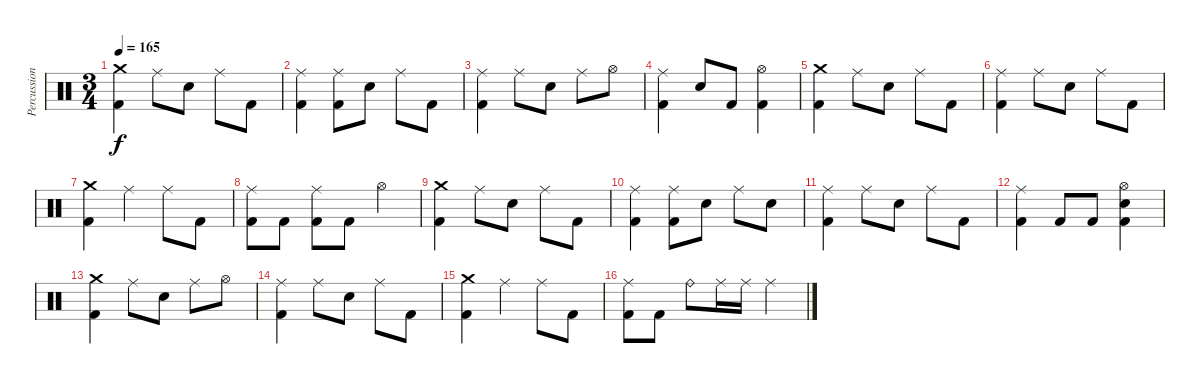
\track ("Percussion" "Percussion") {instrument percussion}
\staff {score}
\articulation defaults
\ts (3 4)
\tempo 165
\clef neutral
\ks c
("Crash medium (hit)" "Kick (hit) 2").4{dy f} "Ride (middle)".8 "Snare (hit) 2".8 "Ride (middle)".8 "Kick (hit) 2".8 |
("Ride (middle)" "Kick (hit) 2").4 ("Ride (middle)" "Kick (hit) 2").8 "Snare (hit) 2".8 "Ride (middle)".8 "Kick (hit) 2".8 |
("Ride (middle)" "Kick (hit) 2").4 "Ride (middle)".8 "Snare (hit) 2".8 "Ride (middle)".8 "Hi-Hat (open)".8 |
("Ride (middle)" "Kick (hit) 2").4 "Snare (hit) 2".8 "Kick (hit) 2".8 ("Hi-Hat (open)" "Kick (hit) 2").4 |
("Crash medium (hit)" "Kick (hit) 2").4 "Ride (middle)".8 "Snare (hit) 2".8 "Ride (middle)".8 "Kick (hit) 2".8 |
("Ride (middle)" "Kick (hit) 2").4 "Ride (middle)".8 "Snare (hit) 2".8 "Ride (middle)".8 "Kick (hit) 2".8 |
("Crash medium (hit)" "Kick (hit) 2").4 "Ride (middle)".4 "Ride (middle)".8 "Kick (hit) 2".8 |
("Ride (middle)" "Kick (hit) 2").8 "Kick (hit) 2".8 ("Ride (middle)" "Kick (hit) 2").8 "Kick (hit) 2".8 "Hi-Hat (open)".4 |
("Crash medium (hit)" "Kick (hit) 2").4 "Ride (middle)".8 "Snare (hit) 2".8 "Ride (middle)".8 "Kick (hit) 2".8 |
("Ride (middle)" "Kick (hit) 2").4 ("Ride (middle)" "Kick (hit) 2").8 "Snare (hit) 2".8 "Ride (middle)".8 "Snare (hit) 2".8 |
("Ride (middle)" "Kick (hit) 2").4 "Ride (middle)".8 "Snare (hit) 2".8 "Ride (middle)".8 "Kick (hit) 2".8 |
("Ride (middle)" "Kick (hit) 2").4 "Kick (hit) 2".8 "Kick (hit) 2".8 ("Hi-Hat (open)" "Snare (hit) 2" "Kick (hit) 2").4 |
("Crash medium (hit)" "Kick (hit) 2").4 "Ride (middle)".8 "Snare (hit) 2".8 "Ride (middle)".8 "Hi-Hat (open)".8 |
("Ride (middle)" "Kick (hit) 2").4 "Ride (middle)".8 "Snare (hit) 2".8 "Ride (middle)".8 "Kick (hit) 2".8 |
("Crash medium (hit)" "Kick (hit) 2").4 "Ride (middle)".4 "Ride (middle)".8 "Kick (hit) 2".8 |
("Ride (middle)" "Kick (hit) 2").8 "Kick (hit) 2".8 "Ride (bell)".8 "Ride (middle)".16 "Ride (middle)".16 "Ride (middle)".4
